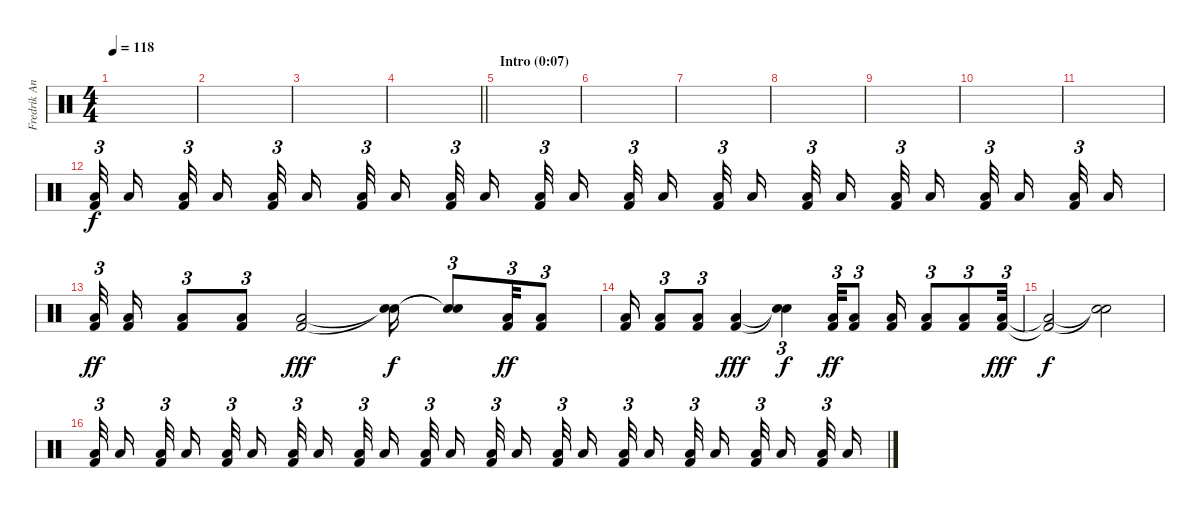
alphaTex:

\track ("Fredrik Andersson " "Fredrik An") {instrument percussion}
\staff {score}
\articulation defaults
\ts (4 4)
\tempo 118
\clef neutral
\ks c
|
|
|
\barLineRight lightlight
|
\section ("" "Intro (0:07)")
|
|
|
|
|
|
|
("Kick (hit) 2" "Low Floor Tom (hit)").32{tu (3 2) volume 8 beam splitsecondary} "Low Floor Tom (hit)".16{beam splitsecondary} ("Kick (hit) 2" "Low Floor Tom (hit)").32{tu (3 2) beam splitsecondary} "Low Floor Tom (hit)".16{beam splitsecondary} ("Kick (hit) 2" "Low Floor Tom (hit)").32{tu (3 2)} "Low Floor Tom (hit)".16 ("Kick (hit) 2" "Low Floor Tom (hit)").32{tu (3 2) beam splitsecondary} "Low Floor Tom (hit)".16{beam splitsecondary} ("Kick (hit) 2" "Low Floor Tom (hit)").32{tu (3 2) beam splitsecondary} "Low Floor Tom (hit)".16{beam splitsecondary} ("Kick (hit) 2" "Low Floor Tom (hit)").32{tu (3 2)} "Low Floor Tom (hit)".16 ("Kick (hit) 2" "Low Floor Tom (hit)").32{tu (3 2) beam splitsecondary} "Low Floor Tom (hit)".16{beam splitsecondary} ("Kick (hit) 2" "Low Floor Tom (hit)").32{tu (3 2) beam splitsecondary} "Low Floor Tom (hit)".16{beam splitsecondary} ("Kick (hit) 2" "Low Floor Tom (hit)").32{tu (3 2)} "Low Floor Tom (hit)".16 ("Kick (hit) 2" "Low Floor Tom (hit)").32{tu (3 2) beam splitsecondary} "Low Floor Tom (hit)".16{beam splitsecondary} ("Kick (hit) 2" "Low Floor Tom (hit)").32{tu (3 2) beam splitsecondary} "Low Floor Tom (hit)".16{beam splitsecondary} ("Kick (hit) 2" "Low Floor Tom (hit)").32{tu (3 2)} "Low Floor Tom (hit)".16 |
("Kick (hit) 2" "Low Floor Tom (hit)").32{tu (3 2) dy ff volume 10 beam splitsecondary} ("Kick (hit) 2" "Low Floor Tom (hit)").16 ("Kick (hit) 2" "Low Floor Tom (hit)").8{tu (3 2)} ("Kick (hit) 2" "Low Floor Tom (hit)").8{tu (3 2)} ("Kick (hit) 2" "Low Floor Tom (hit)").2{dy fff} ("Snare (hit)"{t} "Snare (hit)"{t}).16{dy f} ("Snare (hit)"{t} "Snare (hit)"{t}).8{tu (3 2)} ("Kick (hit) 2" "Low Floor Tom (hit)").32{tu (3 2) dy ff} ("Kick (hit) 2" "Low Floor Tom (hit)").8{tu (3 2)} |
("Kick (hit) 2" "Low Floor Tom (hit)").16 ("Kick (hit) 2" "Low Floor Tom (hit)").8{tu (3 2)} ("Kick (hit) 2" "Low Floor Tom (hit)").8{tu (3 2)} ("Kick (hit) 2" "Low Floor Tom (hit)").4{dy fff} ("Snare (hit)"{t} "Snare (hit)"{t}).4{tu (3 2) dy f} ("Kick (hit) 2" "Low Floor Tom (hit)").32{tu (3 2) dy ff} ("Kick (hit) 2" "Low Floor Tom (hit)").8{tu (3 2)} ("Kick (hit) 2" "Low Floor Tom (hit)").16 ("Kick (hit) 2" "Low Floor Tom (hit)").8{tu (3 2)} ("Kick (hit) 2" "Low Floor Tom (hit)").8{tu (3 2)} ("Kick (hit) 2" "Low Floor Tom (hit)").32{tu (3 2) dy fff} |
("Kick (hit) 2"{t} "Low Floor Tom (hit)"{t}).2{dy f} ("Snare (hit)"{t} "Snare (hit)"{t}).2{volume 2} |
("Kick (hit) 2" "Low Floor Tom (hit)").32{tu (3 2) volume 8 beam splitsecondary} "Low Floor Tom (hit)".16{beam splitsecondary} ("Kick (hit) 2" "Low Floor Tom (hit)").32{tu (3 2) beam splitsecondary} "Low Floor Tom (hit)".16{beam splitsecondary} ("Kick (hit) 2" "Low Floor Tom (hit)").32{tu (3 2)} "Low Floor Tom (hit)".16 ("Kick (hit) 2" "Low Floor Tom (hit)").32{tu (3 2) beam splitsecondary} "Low Floor Tom (hit)".16{beam splitsecondary} ("Kick (hit) 2" "Low Floor Tom (hit)").32{tu (3 2) beam splitsecondary} "Low Floor Tom (hit)".16{beam splitsecondary} ("Kick (hit) 2" "Low Floor Tom (hit)").32{tu (3 2)} "Low Floor Tom (hit)".16 ("Kick (hit) 2" "Low Floor Tom (hit)").32{tu (3 2) beam splitsecondary} "Low Floor Tom (hit)".16{beam splitsecondary} ("Kick (hit) 2" "Low Floor Tom (hit)").32{tu (3 2) beam splitsecondary} "Low Floor Tom (hit)".16{beam splitsecondary} ("Kick (hit) 2" "Low Floor Tom (hit)").32{tu (3 2)} "Low Floor Tom (hit)".16 ("Kick (hit) 2" "Low Floor Tom (hit)").32{tu (3 2) beam splitsecondary} "Low Floor Tom (hit)".16{beam splitsecondary} ("Kick (hit) 2" "Low Floor Tom (hit)").32{tu (3 2) beam splitsecondary} "Low Floor Tom (hit)".16{beam splitsecondary} ("Kick (hit) 2" "Low Floor Tom (hit)").32{tu (3 2)} "Low Floor Tom (hit)".16
